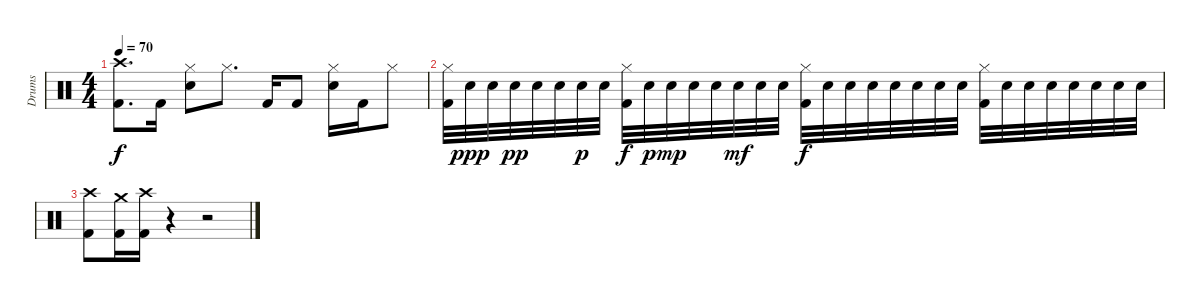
\track ("Drums" "Drums") {instrument percussion}
\staff {score}
\articulation defaults
\ts (4 4)
\tempo 70
\clef neutral
\ks c
("Kick (hit) 2" "Crash high (hit)").8{d dy f} "Kick (hit) 2".16 ("Snare (hit) 2" "Hi-Hat (closed)").8 "Hi-Hat (closed)".8{d} "Kick (hit) 2".16 "Kick (hit) 2".8 ("Snare (hit) 2" "Hi-Hat (closed)").16 "Kick (hit) 2".16 "Hi-Hat (closed)".8 |
("Kick (hit) 2" "Hi-Hat (closed)").32 "Snare (hit) 2".32{dy ppp} "Snare (hit) 2".32 "Snare (hit) 2".32{dy pp} "Snare (hit) 2".32 "Snare (hit) 2".32 "Snare (hit) 2".32{dy p} "Snare (hit) 2".32 ("Kick (hit) 2" "Hi-Hat (closed)").32{dy f} "Snare (hit) 2".32{dy p} "Snare (hit) 2".32{dy mp} "Snare (hit) 2".32 "Snare (hit) 2".32 "Snare (hit) 2".32{dy mf} "Snare (hit) 2".32 "Snare (hit) 2".32 ("Kick (hit) 2" "Hi-Hat (closed)").32{dy f} "Snare (hit) 2".32 "Snare (hit) 2".32 "Snare (hit) 2".32 "Snare (hit) 2".32 "Snare (hit) 2".32 "Snare (hit) 2".32 "Snare (hit) 2".32 ("Kick (hit) 2" "Hi-Hat (closed)").32 "Snare (hit) 2".32 "Snare (hit) 2".32 "Snare (hit) 2".32 "Snare (hit) 2".32 "Snare (hit) 2".32 "Snare (hit) 2".32 "Snare (hit) 2".32 |
("Kick (hit) 2" "Crash high (hit)").8 ("Kick (hit) 2" "Crash medium (hit)").16 ("Kick (hit) 2" "Crash high (hit)").16 r.4 r.2
